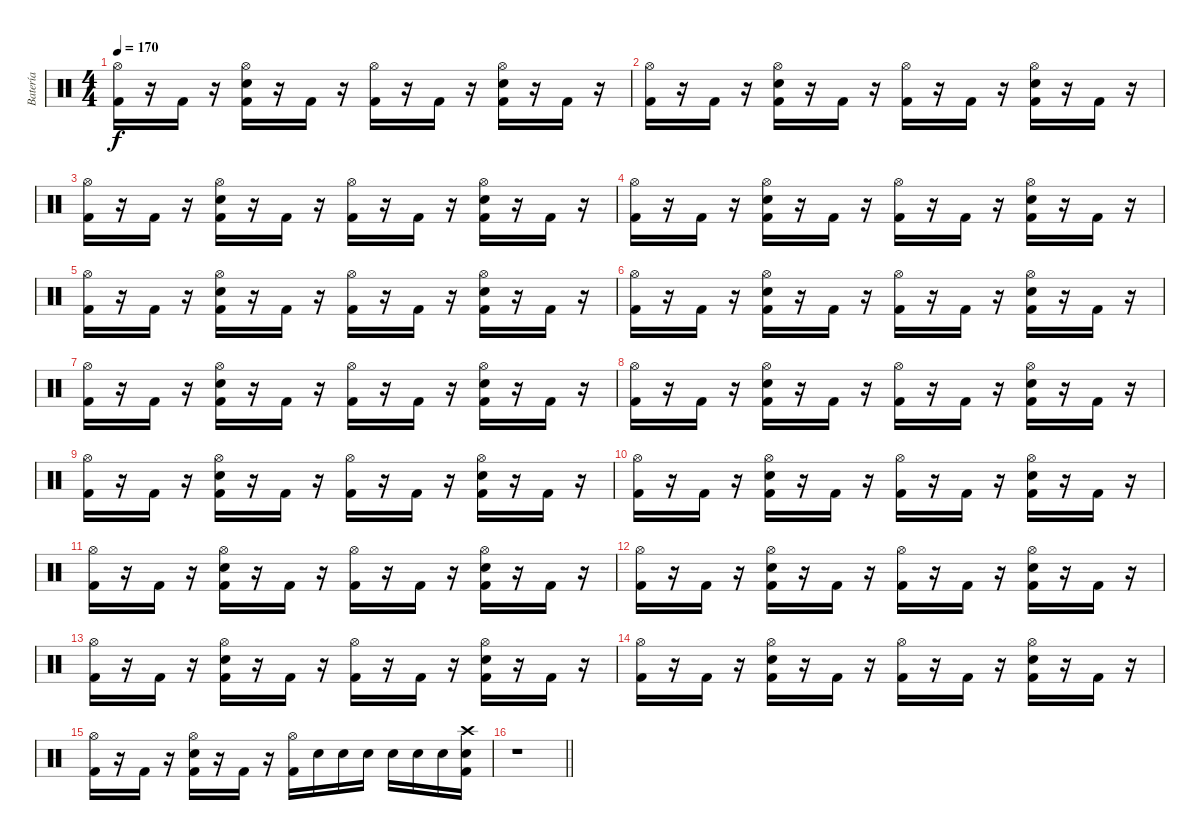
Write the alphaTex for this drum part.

\track ("Batería" "Batería") {instrument percussion}
\staff {score}
\articulation defaults
\ts (4 4)
\tempo 170
\clef neutral
\ks c
("Hi-Hat (open)" "Kick (hit) 2").16{dy f} r.16 "Kick (hit) 2".16 r.16 ("Hi-Hat (open)" "Snare (hit) 2" "Kick (hit) 2").16 r.16 "Kick (hit) 2".16 r.16 ("Hi-Hat (open)" "Kick (hit) 2").16 r.16 "Kick (hit) 2".16 r.16 ("Hi-Hat (open)" "Snare (hit) 2" "Kick (hit) 2").16 r.16 "Kick (hit) 2".16 r.16 |
("Hi-Hat (open)" "Kick (hit) 2").16 r.16 "Kick (hit) 2".16 r.16 ("Hi-Hat (open)" "Snare (hit) 2" "Kick (hit) 2").16 r.16 "Kick (hit) 2".16 r.16 ("Hi-Hat (open)" "Kick (hit) 2").16 r.16 "Kick (hit) 2".16 r.16 ("Hi-Hat (open)" "Snare (hit) 2" "Kick (hit) 2").16 r.16 "Kick (hit) 2".16 r.16 |
("Hi-Hat (open)" "Kick (hit) 2").16 r.16 "Kick (hit) 2".16 r.16 ("Hi-Hat (open)" "Snare (hit) 2" "Kick (hit) 2").16 r.16 "Kick (hit) 2".16 r.16 ("Hi-Hat (open)" "Kick (hit) 2").16 r.16 "Kick (hit) 2".16 r.16 ("Hi-Hat (open)" "Snare (hit) 2" "Kick (hit) 2").16 r.16 "Kick (hit) 2".16 r.16 |
("Hi-Hat (open)" "Kick (hit) 2").16 r.16 "Kick (hit) 2".16 r.16 ("Hi-Hat (open)" "Snare (hit) 2" "Kick (hit) 2").16 r.16 "Kick (hit) 2".16 r.16 ("Hi-Hat (open)" "Kick (hit) 2").16 r.16 "Kick (hit) 2".16 r.16 ("Hi-Hat (open)" "Snare (hit) 2" "Kick (hit) 2").16 r.16 "Kick (hit) 2".16 r.16 |
("Hi-Hat (open)" "Kick (hit) 2").16 r.16 "Kick (hit) 2".16 r.16 ("Hi-Hat (open)" "Snare (hit) 2" "Kick (hit) 2").16 r.16 "Kick (hit) 2".16 r.16 ("Hi-Hat (open)" "Kick (hit) 2").16 r.16 "Kick (hit) 2".16 r.16 ("Hi-Hat (open)" "Snare (hit) 2" "Kick (hit) 2").16 r.16 "Kick (hit) 2".16 r.16 |
("Hi-Hat (open)" "Kick (hit) 2").16 r.16 "Kick (hit) 2".16 r.16 ("Hi-Hat (open)" "Snare (hit) 2" "Kick (hit) 2").16 r.16 "Kick (hit) 2".16 r.16 ("Hi-Hat (open)" "Kick (hit) 2").16 r.16 "Kick (hit) 2".16 r.16 ("Hi-Hat (open)" "Snare (hit) 2" "Kick (hit) 2").16 r.16 "Kick (hit) 2".16 r.16 |
("Hi-Hat (open)" "Kick (hit) 2").16 r.16 "Kick (hit) 2".16 r.16 ("Hi-Hat (open)" "Snare (hit) 2" "Kick (hit) 2").16 r.16 "Kick (hit) 2".16 r.16 ("Hi-Hat (open)" "Kick (hit) 2").16 r.16 "Kick (hit) 2".16 r.16 ("Hi-Hat (open)" "Snare (hit) 2" "Kick (hit) 2").16 r.16 "Kick (hit) 2".16 r.16 |
("Hi-Hat (open)" "Kick (hit) 2").16 r.16 "Kick (hit) 2".16 r.16 ("Hi-Hat (open)" "Snare (hit) 2" "Kick (hit) 2").16 r.16 "Kick (hit) 2".16 r.16 ("Hi-Hat (open)" "Kick (hit) 2").16 r.16 "Kick (hit) 2".16 r.16 ("Hi-Hat (open)" "Snare (hit) 2" "Kick (hit) 2").16 r.16 "Kick (hit) 2".16 r.16 |
("Hi-Hat (open)" "Kick (hit) 2").16 r.16 "Kick (hit) 2".16 r.16 ("Hi-Hat (open)" "Snare (hit) 2" "Kick (hit) 2").16 r.16 "Kick (hit) 2".16 r.16 ("Hi-Hat (open)" "Kick (hit) 2").16 r.16 "Kick (hit) 2".16 r.16 ("Hi-Hat (open)" "Snare (hit) 2" "Kick (hit) 2").16 r.16 "Kick (hit) 2".16 r.16 |
("Hi-Hat (open)" "Kick (hit) 2").16 r.16 "Kick (hit) 2".16 r.16 ("Hi-Hat (open)" "Snare (hit) 2" "Kick (hit) 2").16 r.16 "Kick (hit) 2".16 r.16 ("Hi-Hat (open)" "Kick (hit) 2").16 r.16 "Kick (hit) 2".16 r.16 ("Hi-Hat (open)" "Snare (hit) 2" "Kick (hit) 2").16 r.16 "Kick (hit) 2".16 r.16 |
("Hi-Hat (open)" "Kick (hit) 2").16 r.16 "Kick (hit) 2".16 r.16 ("Hi-Hat (open)" "Snare (hit) 2" "Kick (hit) 2").16 r.16 "Kick (hit) 2".16 r.16 ("Hi-Hat (open)" "Kick (hit) 2").16 r.16 "Kick (hit) 2".16 r.16 ("Hi-Hat (open)" "Snare (hit) 2" "Kick (hit) 2").16 r.16 "Kick (hit) 2".16 r.16 |
("Hi-Hat (open)" "Kick (hit) 2").16 r.16 "Kick (hit) 2".16 r.16 ("Hi-Hat (open)" "Snare (hit) 2" "Kick (hit) 2").16 r.16 "Kick (hit) 2".16 r.16 ("Hi-Hat (open)" "Kick (hit) 2").16 r.16 "Kick (hit) 2".16 r.16 ("Hi-Hat (open)" "Snare (hit) 2" "Kick (hit) 2").16 r.16 "Kick (hit) 2".16 r.16 |
("Hi-Hat (open)" "Kick (hit) 2").16 r.16 "Kick (hit) 2".16 r.16 ("Hi-Hat (open)" "Snare (hit) 2" "Kick (hit) 2").16 r.16 "Kick (hit) 2".16 r.16 ("Hi-Hat (open)" "Kick (hit) 2").16 r.16 "Kick (hit) 2".16 r.16 ("Hi-Hat (open)" "Snare (hit) 2" "Kick (hit) 2").16 r.16 "Kick (hit) 2".16 r.16 |
("Hi-Hat (open)" "Kick (hit) 2").16 r.16 "Kick (hit) 2".16 r.16 ("Hi-Hat (open)" "Snare (hit) 2" "Kick (hit) 2").16 r.16 "Kick (hit) 2".16 r.16 ("Hi-Hat (open)" "Kick (hit) 2").16 r.16 "Kick (hit) 2".16 r.16 ("Hi-Hat (open)" "Snare (hit) 2" "Kick (hit) 2").16 r.16 "Kick (hit) 2".16 r.16 |
("Hi-Hat (open)" "Kick (hit) 2").16 r.16 "Kick (hit) 2".16 r.16 ("Hi-Hat (open)" "Snare (hit) 2" "Kick (hit) 2").16 r.16 "Kick (hit) 2".16 r.16 ("Hi-Hat (open)" "Kick (hit) 2").16 "Snare (hit) 2".16 "Snare (hit) 2".16 "Snare (hit) 2".16 "Snare (hit) 2".16 "Snare (hit) 2".16 "Snare (hit) 2".16 ("Crash high (hit)" "Snare (hit) 2" "Kick (hit) 2").16 |
\barLineRight lightlight
r.1
